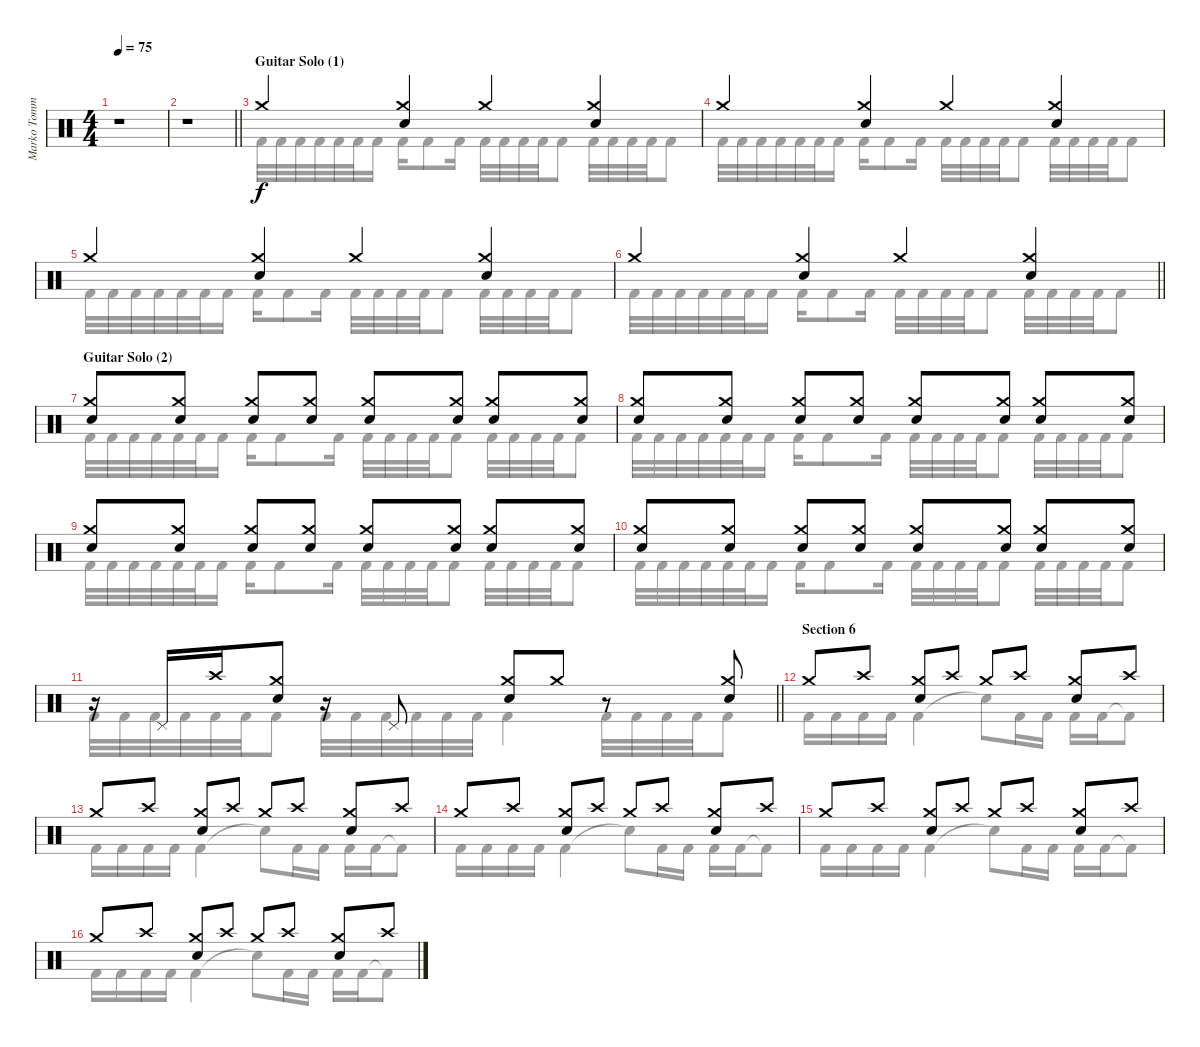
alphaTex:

\track ("Marko Tommila (drums)" "Marko Tomm") {instrument percussion}
\staff {score}
\articulation defaults
\voice
\ts (4 4)
\tempo 75
\clef neutral
\ks aminor
r.1{dy f} |
\barLineRight lightlight
r.1 |
\section ("" "Guitar Solo (1)")
"Crash medium (hit)".4 ("Crash medium (hit)" "Electric Snare (hit)").4 "Crash medium (hit)".4 ("Crash medium (hit)" "Electric Snare (hit)").4 |
"Crash medium (hit)".4 ("Crash medium (hit)" "Electric Snare (hit)").4 "Crash medium (hit)".4 ("Crash medium (hit)" "Electric Snare (hit)").4 |
"Crash medium (hit)".4 ("Crash medium (hit)" "Electric Snare (hit)").4 "Crash medium (hit)".4 ("Crash medium (hit)" "Electric Snare (hit)").4 |
\barLineRight lightlight "Crash medium (hit)".4
("Crash medium (hit)" "Electric Snare (hit)").4 "Crash medium (hit)".4 ("Crash medium (hit)" "Electric Snare (hit)").4 |
\section ("" "Guitar Solo (2)")
("Crash medium (hit)" "Electric Snare (hit)").8 ("Crash medium (hit)" "Electric Snare (hit)").8 ("Crash medium (hit)" "Electric Snare (hit)").8 ("Crash medium (hit)" "Electric Snare (hit)").8 ("Crash medium (hit)" "Electric Snare (hit)").8 ("Crash medium (hit)" "Electric Snare (hit)").8 ("Crash medium (hit)" "Electric Snare (hit)").8 ("Crash medium (hit)" "Electric Snare (hit)").8 |
("Crash medium (hit)" "Electric Snare (hit)").8 ("Crash medium (hit)" "Electric Snare (hit)").8 ("Crash medium (hit)" "Electric Snare (hit)").8 ("Crash medium (hit)" "Electric Snare (hit)").8 ("Crash medium (hit)" "Electric Snare (hit)").8 ("Crash medium (hit)" "Electric Snare (hit)").8 ("Crash medium (hit)" "Electric Snare (hit)").8 ("Crash medium (hit)" "Electric Snare (hit)").8 |
("Crash medium (hit)" "Electric Snare (hit)").8 ("Crash medium (hit)" "Electric Snare (hit)").8 ("Crash medium (hit)" "Electric Snare (hit)").8 ("Crash medium (hit)" "Electric Snare (hit)").8 ("Crash medium (hit)" "Electric Snare (hit)").8 ("Crash medium (hit)" "Electric Snare (hit)").8 ("Crash medium (hit)" "Electric Snare (hit)").8 ("Crash medium (hit)" "Electric Snare (hit)").8 |
("Crash medium (hit)" "Electric Snare (hit)").8 ("Crash medium (hit)" "Electric Snare (hit)").8 ("Crash medium (hit)" "Electric Snare (hit)").8 ("Crash medium (hit)" "Electric Snare (hit)").8 ("Crash medium (hit)" "Electric Snare (hit)").8 ("Crash medium (hit)" "Electric Snare (hit)").8 ("Crash medium (hit)" "Electric Snare (hit)").8 ("Crash medium (hit)" "Electric Snare (hit)").8 |
\barLineRight lightlight
r.16 "Pedal Hi-Hat (hit)".16 "Crash high (hit)".16 ("Crash medium (hit)" "Electric Snare (hit)").8 r.16 "Pedal Hi-Hat (hit)".8 ("Crash medium (hit)" "Electric Snare (hit)").8 "Crash medium (hit)".8 r.8 ("Crash medium (hit)" "Electric Snare (hit)").8 |
\section ("" "Section 6")
"Crash medium (hit)".8 "Crash high (hit)".8 ("Crash medium (hit)" "Electric Snare (hit)").8 "Crash high (hit)".8 "Crash medium (hit)".8 "Crash high (hit)".8 ("Crash medium (hit)" "Electric Snare (hit)").8 "Crash high (hit)".8 |
"Crash medium (hit)".8 "Crash high (hit)".8 ("Crash medium (hit)" "Electric Snare (hit)").8 "Crash high (hit)".8 "Crash medium (hit)".8 "Crash high (hit)".8 ("Crash medium (hit)" "Electric Snare (hit)").8 "Crash high (hit)".8 |
"Crash medium (hit)".8 "Crash high (hit)".8 ("Crash medium (hit)" "Electric Snare (hit)").8 "Crash high (hit)".8 "Crash medium (hit)".8 "Crash high (hit)".8 ("Crash medium (hit)" "Electric Snare (hit)").8 "Crash high (hit)".8 |
"Crash medium (hit)".8 "Crash high (hit)".8 ("Crash medium (hit)" "Electric Snare (hit)").8 "Crash high (hit)".8 "Crash medium (hit)".8 "Crash high (hit)".8 ("Crash medium (hit)" "Electric Snare (hit)").8 "Crash high (hit)".8 |
"Crash medium (hit)".8 "Crash high (hit)".8 ("Crash medium (hit)" "Electric Snare (hit)").8 "Crash high (hit)".8 "Crash medium (hit)".8 "Crash high (hit)".8 ("Crash medium (hit)" "Electric Snare (hit)").8 "Crash high (hit)".8
\voice
\clef neutral
\ottava regular
\simile none
\ks aminor
|
\barLineRight lightlight
|
"Kick (hit) 2".32 "Kick (hit) 2".32 "Kick (hit) 2".32 "Kick (hit) 2".32 "Kick (hit) 2".32 "Kick (hit) 2".32 "Kick (hit) 2".16 "Kick (hit) 2".16 "Kick (hit) 2".8 "Kick (hit) 2".16 "Kick (hit) 2".32 "Kick (hit) 2".32 "Kick (hit) 2".32 "Kick (hit) 2".32 "Kick (hit) 2".8 "Kick (hit) 2".32 "Kick (hit) 2".32 "Kick (hit) 2".32 "Kick (hit) 2".32 "Kick (hit) 2".8 |
"Kick (hit) 2".32 "Kick (hit) 2".32 "Kick (hit) 2".32 "Kick (hit) 2".32 "Kick (hit) 2".32 "Kick (hit) 2".32 "Kick (hit) 2".16 "Kick (hit) 2".16 "Kick (hit) 2".8 "Kick (hit) 2".16 "Kick (hit) 2".32 "Kick (hit) 2".32 "Kick (hit) 2".32 "Kick (hit) 2".32 "Kick (hit) 2".8 "Kick (hit) 2".32 "Kick (hit) 2".32 "Kick (hit) 2".32 "Kick (hit) 2".32 "Kick (hit) 2".8 |
"Kick (hit) 2".32 "Kick (hit) 2".32 "Kick (hit) 2".32 "Kick (hit) 2".32 "Kick (hit) 2".32 "Kick (hit) 2".32 "Kick (hit) 2".16 "Kick (hit) 2".16 "Kick (hit) 2".8 "Kick (hit) 2".16 "Kick (hit) 2".32 "Kick (hit) 2".32 "Kick (hit) 2".32 "Kick (hit) 2".32 "Kick (hit) 2".8 "Kick (hit) 2".32 "Kick (hit) 2".32 "Kick (hit) 2".32 "Kick (hit) 2".32 "Kick (hit) 2".8 |
\barLineRight lightlight "Kick (hit) 2".32 "Kick (hit) 2".32 "Kick (hit) 2".32 "Kick (hit) 2".32 "Kick (hit) 2".32 "Kick (hit) 2".32 "Kick (hit) 2".16 "Kick (hit) 2".16 "Kick (hit) 2".8 "Kick (hit) 2".16 "Kick (hit) 2".32 "Kick (hit) 2".32 "Kick (hit) 2".32 "Kick (hit) 2".32 "Kick (hit) 2".8 "Kick (hit) 2".32 "Kick (hit) 2".32 "Kick (hit) 2".32 "Kick (hit) 2".32 "Kick (hit) 2".8
|
"Kick (hit) 2".32 "Kick (hit) 2".32 "Kick (hit) 2".32 "Kick (hit) 2".32 "Kick (hit) 2".32 "Kick (hit) 2".32 "Kick (hit) 2".16 "Kick (hit) 2".16 "Kick (hit) 2".8 "Kick (hit) 2".16 "Kick (hit) 2".32 "Kick (hit) 2".32 "Kick (hit) 2".32 "Kick (hit) 2".32 "Kick (hit) 2".8 "Kick (hit) 2".32 "Kick (hit) 2".32 "Kick (hit) 2".32 "Kick (hit) 2".32 "Kick (hit) 2".8 |
"Kick (hit) 2".32 "Kick (hit) 2".32 "Kick (hit) 2".32 "Kick (hit) 2".32 "Kick (hit) 2".32 "Kick (hit) 2".32 "Kick (hit) 2".16 "Kick (hit) 2".16 "Kick (hit) 2".8 "Kick (hit) 2".16 "Kick (hit) 2".32 "Kick (hit) 2".32 "Kick (hit) 2".32 "Kick (hit) 2".32 "Kick (hit) 2".8 "Kick (hit) 2".32 "Kick (hit) 2".32 "Kick (hit) 2".32 "Kick (hit) 2".32 "Kick (hit) 2".8 |
"Kick (hit) 2".32 "Kick (hit) 2".32 "Kick (hit) 2".32 "Kick (hit) 2".32 "Kick (hit) 2".32 "Kick (hit) 2".32 "Kick (hit) 2".16 "Kick (hit) 2".16 "Kick (hit) 2".8 "Kick (hit) 2".16 "Kick (hit) 2".32 "Kick (hit) 2".32 "Kick (hit) 2".32 "Kick (hit) 2".32 "Kick (hit) 2".8 "Kick (hit) 2".32 "Kick (hit) 2".32 "Kick (hit) 2".32 "Kick (hit) 2".32 "Kick (hit) 2".8 |
"Kick (hit) 2".32 "Kick (hit) 2".32 "Kick (hit) 2".32 "Kick (hit) 2".32 "Kick (hit) 2".32 "Kick (hit) 2".32 "Kick (hit) 2".16 "Kick (hit) 2".16 "Kick (hit) 2".8 "Kick (hit) 2".16 "Kick (hit) 2".32 "Kick (hit) 2".32 "Kick (hit) 2".32 "Kick (hit) 2".32 "Kick (hit) 2".8 "Kick (hit) 2".32 "Kick (hit) 2".32 "Kick (hit) 2".32 "Kick (hit) 2".32 "Kick (hit) 2".8 |
\barLineRight lightlight "Kick (hit) 2".32 "Kick (hit) 2".32 "Kick (hit) 2".32 "Kick (hit) 2".32 "Kick (hit) 2".32 "Kick (hit) 2".32 "Kick (hit) 2".8 "Kick (hit) 2".32 "Kick (hit) 2".32 "Kick (hit) 2".32 "Kick (hit) 2".32 "Kick (hit) 2".32 "Kick (hit) 2".32 "Kick (hit) 2".4 "Kick (hit) 2".32 "Kick (hit) 2".32 "Kick (hit) 2".32 "Kick (hit) 2".32 "Kick (hit) 2".8
|
"Kick (hit) 2".16 "Kick (hit) 2".16 "Kick (hit) 2".16 "Kick (hit) 2".16 "Kick (hit) 2".4 "Snare (hit)"{t}.8 "Kick (hit) 2".16 "Kick (hit) 2".16 "Kick (hit) 2".16 "Kick (hit) 2".16 "Kick (hit) 2"{t}.8 |
"Kick (hit) 2".16 "Kick (hit) 2".16 "Kick (hit) 2".16 "Kick (hit) 2".16 "Kick (hit) 2".4 "Snare (hit)"{t}.8 "Kick (hit) 2".16 "Kick (hit) 2".16 "Kick (hit) 2".16 "Kick (hit) 2".16 "Kick (hit) 2"{t}.8 |
"Kick (hit) 2".16 "Kick (hit) 2".16 "Kick (hit) 2".16 "Kick (hit) 2".16 "Kick (hit) 2".4 "Snare (hit)"{t}.8 "Kick (hit) 2".16 "Kick (hit) 2".16 "Kick (hit) 2".16 "Kick (hit) 2".16 "Kick (hit) 2"{t}.8 |
"Kick (hit) 2".16 "Kick (hit) 2".16 "Kick (hit) 2".16 "Kick (hit) 2".16 "Kick (hit) 2".4 "Snare (hit)"{t}.8 "Kick (hit) 2".16 "Kick (hit) 2".16 "Kick (hit) 2".16 "Kick (hit) 2".16 "Kick (hit) 2"{t}.8 |
"Kick (hit) 2".16 "Kick (hit) 2".16 "Kick (hit) 2".16 "Kick (hit) 2".16 "Kick (hit) 2".4 "Snare (hit)"{t}.8 "Kick (hit) 2".16 "Kick (hit) 2".16 "Kick (hit) 2".16 "Kick (hit) 2".16 "Kick (hit) 2"{t}.8
